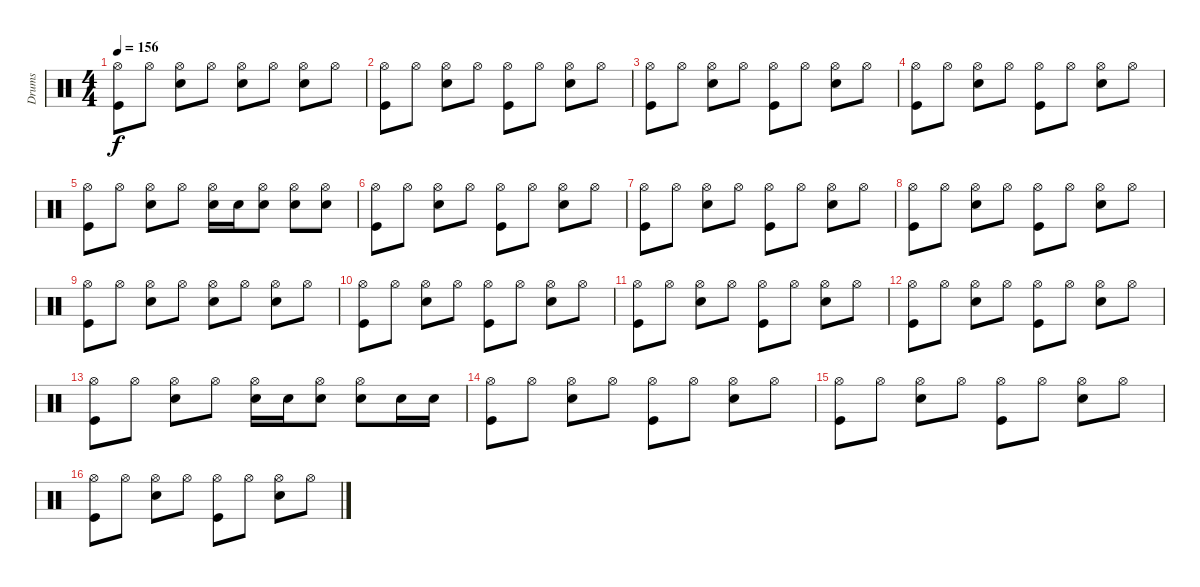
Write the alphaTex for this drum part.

\track ("Drums" "Drums") {instrument percussion}
\staff {score}
\articulation defaults
\ts (4 4)
\tempo 156
\clef neutral
\ks c
("Hi-Hat (open)" "Kick (hit)").8{dy f} "Hi-Hat (open)".8 ("Hi-Hat (open)" "Electric Snare (hit)").8 "Hi-Hat (open)".8 ("Hi-Hat (open)" "Electric Snare (hit)").8 "Hi-Hat (open)".8 ("Hi-Hat (open)" "Electric Snare (hit)").8 "Hi-Hat (open)".8 |
("Hi-Hat (open)" "Kick (hit)").8 "Hi-Hat (open)".8 ("Hi-Hat (open)" "Electric Snare (hit)").8 "Hi-Hat (open)".8 ("Hi-Hat (open)" "Kick (hit)").8 "Hi-Hat (open)".8 ("Hi-Hat (open)" "Electric Snare (hit)").8 "Hi-Hat (open)".8 |
("Hi-Hat (open)" "Kick (hit)").8 "Hi-Hat (open)".8 ("Hi-Hat (open)" "Electric Snare (hit)").8 "Hi-Hat (open)".8 ("Hi-Hat (open)" "Kick (hit)").8 "Hi-Hat (open)".8 ("Hi-Hat (open)" "Electric Snare (hit)").8 "Hi-Hat (open)".8 |
("Hi-Hat (open)" "Kick (hit)").8 "Hi-Hat (open)".8 ("Hi-Hat (open)" "Electric Snare (hit)").8 "Hi-Hat (open)".8 ("Hi-Hat (open)" "Kick (hit)").8 "Hi-Hat (open)".8 ("Hi-Hat (open)" "Electric Snare (hit)").8 "Hi-Hat (open)".8 |
("Hi-Hat (open)" "Kick (hit)").8 "Hi-Hat (open)".8 ("Hi-Hat (open)" "Electric Snare (hit)").8 "Hi-Hat (open)".8 ("Hi-Hat (open)" "Electric Snare (hit)").16 "Electric Snare (hit)".16 ("Hi-Hat (open)" "Electric Snare (hit)").8 ("Hi-Hat (open)" "Electric Snare (hit)").8 ("Hi-Hat (open)" "Electric Snare (hit)").8 |
("Hi-Hat (open)" "Kick (hit)").8 "Hi-Hat (open)".8 ("Hi-Hat (open)" "Electric Snare (hit)").8 "Hi-Hat (open)".8 ("Hi-Hat (open)" "Kick (hit)").8 "Hi-Hat (open)".8 ("Hi-Hat (open)" "Electric Snare (hit)").8 "Hi-Hat (open)".8 |
("Hi-Hat (open)" "Kick (hit)").8 "Hi-Hat (open)".8 ("Hi-Hat (open)" "Electric Snare (hit)").8 "Hi-Hat (open)".8 ("Hi-Hat (open)" "Kick (hit)").8 "Hi-Hat (open)".8 ("Hi-Hat (open)" "Electric Snare (hit)").8 "Hi-Hat (open)".8 |
("Hi-Hat (open)" "Kick (hit)").8 "Hi-Hat (open)".8 ("Hi-Hat (open)" "Electric Snare (hit)").8 "Hi-Hat (open)".8 ("Hi-Hat (open)" "Kick (hit)").8 "Hi-Hat (open)".8 ("Hi-Hat (open)" "Electric Snare (hit)").8 "Hi-Hat (open)".8 |
("Hi-Hat (open)" "Kick (hit)").8 "Hi-Hat (open)".8 ("Hi-Hat (open)" "Electric Snare (hit)").8 "Hi-Hat (open)".8 ("Hi-Hat (open)" "Electric Snare (hit)").8 "Hi-Hat (open)".8 ("Hi-Hat (open)" "Electric Snare (hit)").8 "Hi-Hat (open)".8 |
("Hi-Hat (open)" "Kick (hit)").8 "Hi-Hat (open)".8 ("Hi-Hat (open)" "Electric Snare (hit)").8 "Hi-Hat (open)".8 ("Hi-Hat (open)" "Kick (hit)").8 "Hi-Hat (open)".8 ("Hi-Hat (open)" "Electric Snare (hit)").8 "Hi-Hat (open)".8 |
("Hi-Hat (open)" "Kick (hit)").8 "Hi-Hat (open)".8 ("Hi-Hat (open)" "Electric Snare (hit)").8 "Hi-Hat (open)".8 ("Hi-Hat (open)" "Kick (hit)").8 "Hi-Hat (open)".8 ("Hi-Hat (open)" "Electric Snare (hit)").8 "Hi-Hat (open)".8 |
("Hi-Hat (open)" "Kick (hit)").8 "Hi-Hat (open)".8 ("Hi-Hat (open)" "Electric Snare (hit)").8 "Hi-Hat (open)".8 ("Hi-Hat (open)" "Kick (hit)").8 "Hi-Hat (open)".8 ("Hi-Hat (open)" "Electric Snare (hit)").8 "Hi-Hat (open)".8 |
("Hi-Hat (open)" "Kick (hit)").8 "Hi-Hat (open)".8 ("Hi-Hat (open)" "Electric Snare (hit)").8 "Hi-Hat (open)".8 ("Hi-Hat (open)" "Electric Snare (hit)").16 "Electric Snare (hit)".16 ("Hi-Hat (open)" "Electric Snare (hit)").8 ("Hi-Hat (open)" "Electric Snare (hit)").8 "Electric Snare (hit)".16 "Electric Snare (hit)".16 |
("Hi-Hat (open)" "Kick (hit)").8 "Hi-Hat (open)".8 ("Hi-Hat (open)" "Electric Snare (hit)").8 "Hi-Hat (open)".8 ("Hi-Hat (open)" "Kick (hit)").8 "Hi-Hat (open)".8 ("Hi-Hat (open)" "Electric Snare (hit)").8 "Hi-Hat (open)".8 |
("Hi-Hat (open)" "Kick (hit)").8 "Hi-Hat (open)".8 ("Hi-Hat (open)" "Electric Snare (hit)").8 "Hi-Hat (open)".8 ("Hi-Hat (open)" "Kick (hit)").8 "Hi-Hat (open)".8 ("Hi-Hat (open)" "Electric Snare (hit)").8 "Hi-Hat (open)".8 |
("Hi-Hat (open)" "Kick (hit)").8 "Hi-Hat (open)".8 ("Hi-Hat (open)" "Electric Snare (hit)").8 "Hi-Hat (open)".8 ("Hi-Hat (open)" "Kick (hit)").8 "Hi-Hat (open)".8 ("Hi-Hat (open)" "Electric Snare (hit)").8 "Hi-Hat (open)".8
